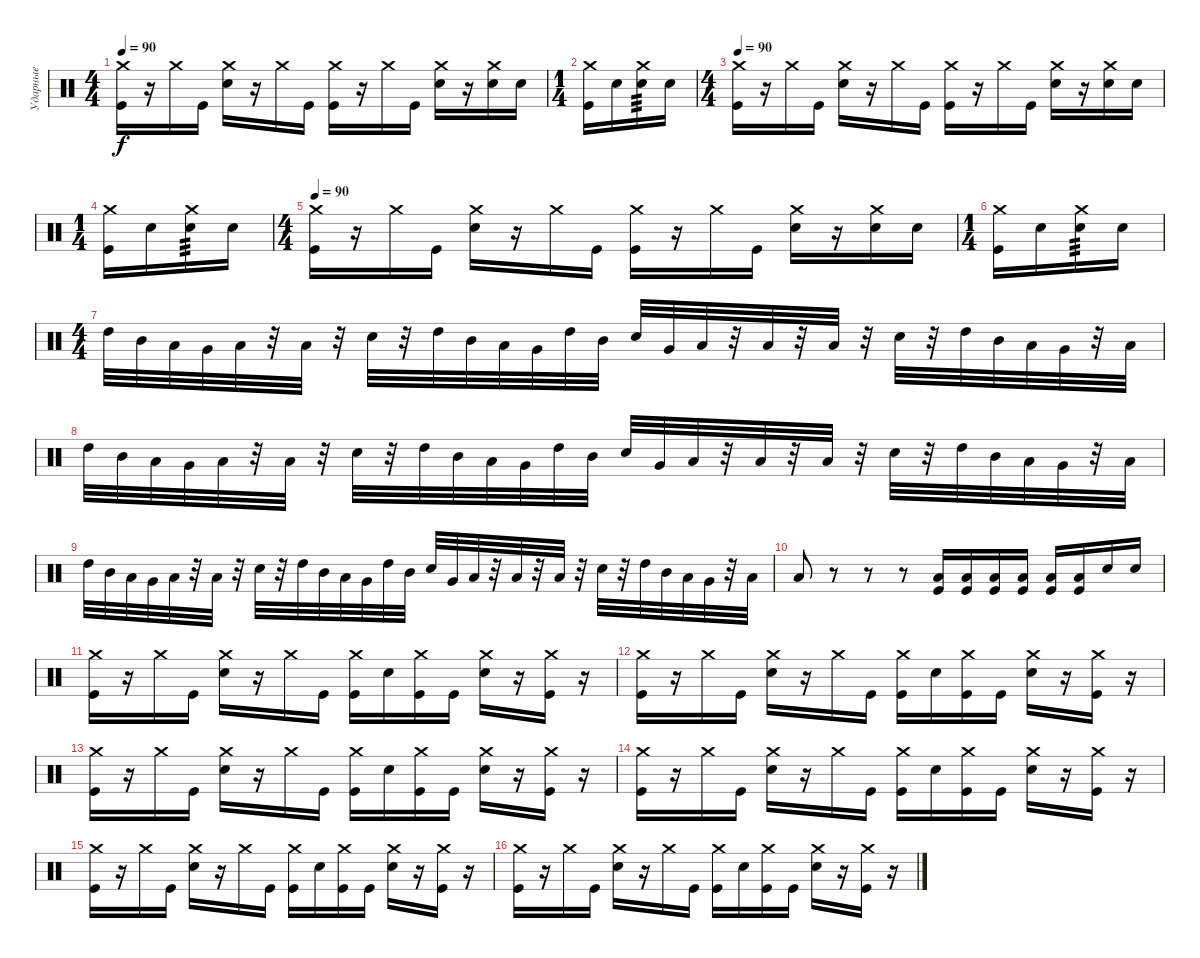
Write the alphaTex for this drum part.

\track ("Ударные" "Ударные") {instrument percussion}
\staff {score}
\articulation defaults
\ts (4 4)
\tempo 90
\clef neutral
\ks c
("Crash medium (hit)" "Kick (hit)").16{dy f} r.16 "Crash medium (hit)".16 "Kick (hit)".16 ("Crash medium (hit)" "Electric Snare (hit)").16 r.16 "Crash medium (hit)".16 "Kick (hit)".16 ("Crash medium (hit)" "Kick (hit)").16 r.16 "Crash medium (hit)".16 "Kick (hit)".16 ("Crash medium (hit)" "Electric Snare (hit)").16 r.16 ("Crash medium (hit)" "Electric Snare (hit)").16 "Electric Snare (hit)".16 |
\ts (1 4)
("Crash medium (hit)" "Kick (hit)").16 "Electric Snare (hit)".16 ("Crash medium (hit)" "Electric Snare (hit)").16{tp 3} "Electric Snare (hit)".16 |
\ts (4 4)
\tempo 90
("Crash medium (hit)" "Kick (hit)").16 r.16 "Crash medium (hit)".16 "Kick (hit)".16 ("Crash medium (hit)" "Electric Snare (hit)").16 r.16 "Crash medium (hit)".16 "Kick (hit)".16 ("Crash medium (hit)" "Kick (hit)").16 r.16 "Crash medium (hit)".16 "Kick (hit)".16 ("Crash medium (hit)" "Electric Snare (hit)").16 r.16 ("Crash medium (hit)" "Electric Snare (hit)").16 "Electric Snare (hit)".16 |
\ts (1 4)
("Crash medium (hit)" "Kick (hit)").16 "Electric Snare (hit)".16 ("Crash medium (hit)" "Electric Snare (hit)").16{tp 3} "Electric Snare (hit)".16 |
\ts (4 4)
\tempo 90
("Crash medium (hit)" "Kick (hit)").16 r.16 "Crash medium (hit)".16 "Kick (hit)".16 ("Crash medium (hit)" "Electric Snare (hit)").16 r.16 "Crash medium (hit)".16 "Kick (hit)".16 ("Crash medium (hit)" "Kick (hit)").16 r.16 "Crash medium (hit)".16 "Kick (hit)".16 ("Crash medium (hit)" "Electric Snare (hit)").16 r.16 ("Crash medium (hit)" "Electric Snare (hit)").16 "Electric Snare (hit)".16 |
\ts (1 4)
("Crash medium (hit)" "Kick (hit)").16 "Electric Snare (hit)".16 ("Crash medium (hit)" "Electric Snare (hit)").16{tp 3} "Electric Snare (hit)".16 |
\ts (4 4)
"High Tom (hit)".32 "Mid Tom (hit)".32 "Low Tom (hit)".32 "Very Low Tom (hit)".32 "Low Floor Tom (hit)".32 r.32 "Low Floor Tom (hit)".32 r.32 "Electric Snare (hit)".32 r.32 "High Tom (hit)".32 "Mid Tom (hit)".32 "Low Tom (hit)".32 "Very Low Tom (hit)".32 "High Tom (hit)".32 "Mid Tom (hit)".32 "Electric Snare (hit)".32 "Very Low Tom (hit)".32 "Low Floor Tom (hit)".32 r.32 "Low Floor Tom (hit)".32 r.32 "Low Floor Tom (hit)".32 r.32 "Electric Snare (hit)".32 r.32 "High Tom (hit)".32 "Mid Tom (hit)".32 "Low Tom (hit)".32 "Very Low Tom (hit)".32 r.32 "Low Floor Tom (hit)".32 |
"High Tom (hit)".32 "Mid Tom (hit)".32 "Low Tom (hit)".32 "Very Low Tom (hit)".32 "Low Floor Tom (hit)".32 r.32 "Low Floor Tom (hit)".32 r.32 "Electric Snare (hit)".32 r.32 "High Tom (hit)".32 "Mid Tom (hit)".32 "Low Tom (hit)".32 "Very Low Tom (hit)".32 "High Tom (hit)".32 "Mid Tom (hit)".32 "Electric Snare (hit)".32 "Very Low Tom (hit)".32 "Low Floor Tom (hit)".32 r.32 "Low Floor Tom (hit)".32 r.32 "Low Floor Tom (hit)".32 r.32 "Electric Snare (hit)".32 r.32 "High Tom (hit)".32 "Mid Tom (hit)".32 "Low Tom (hit)".32 "Very Low Tom (hit)".32 r.32 "Low Floor Tom (hit)".32 |
"High Tom (hit)".32 "Mid Tom (hit)".32 "Low Tom (hit)".32 "Very Low Tom (hit)".32 "Low Floor Tom (hit)".32 r.32 "Low Floor Tom (hit)".32 r.32 "Electric Snare (hit)".32 r.32 "High Tom (hit)".32 "Mid Tom (hit)".32 "Low Tom (hit)".32 "Very Low Tom (hit)".32 "High Tom (hit)".32 "Mid Tom (hit)".32 "Electric Snare (hit)".32 "Very Low Tom (hit)".32 "Low Floor Tom (hit)".32 r.32 "Low Floor Tom (hit)".32 r.32 "Low Floor Tom (hit)".32 r.32 "Electric Snare (hit)".32 r.32 "High Tom (hit)".32 "Mid Tom (hit)".32 "Low Tom (hit)".32 "Very Low Tom (hit)".32 r.32 "Low Floor Tom (hit)".32 |
"Low Floor Tom (hit)".8 r.8 r.8 r.8 ("Kick (hit)" "Low Floor Tom (hit)").16 ("Kick (hit)" "Low Floor Tom (hit)").16 ("Kick (hit)" "Low Floor Tom (hit)").16 ("Kick (hit)" "Low Floor Tom (hit)").16 ("Kick (hit)" "Low Floor Tom (hit)").16 ("Kick (hit)" "Low Floor Tom (hit)").16 "Electric Snare (hit)".16 "Electric Snare (hit)".16 |
("Crash medium (hit)" "Kick (hit)").16 r.16 "Crash medium (hit)".16 "Kick (hit)".16 ("Crash medium (hit)" "Electric Snare (hit)").16 r.16 "Crash medium (hit)".16 "Kick (hit)".16 ("Crash medium (hit)" "Kick (hit)").16 "Electric Snare (hit)".16 ("Crash medium (hit)" "Kick (hit)").16 "Kick (hit)".16 ("Crash medium (hit)" "Electric Snare (hit)").16 r.16 ("Crash medium (hit)" "Kick (hit)").16 r.16 |
("Crash medium (hit)" "Kick (hit)").16 r.16 "Crash medium (hit)".16 "Kick (hit)".16 ("Crash medium (hit)" "Electric Snare (hit)").16 r.16 "Crash medium (hit)".16 "Kick (hit)".16 ("Crash medium (hit)" "Kick (hit)").16 "Electric Snare (hit)".16 ("Crash medium (hit)" "Kick (hit)").16 "Kick (hit)".16 ("Crash medium (hit)" "Electric Snare (hit)").16 r.16 ("Crash medium (hit)" "Kick (hit)").16 r.16 |
("Crash medium (hit)" "Kick (hit)").16 r.16 "Crash medium (hit)".16 "Kick (hit)".16 ("Crash medium (hit)" "Electric Snare (hit)").16 r.16 "Crash medium (hit)".16 "Kick (hit)".16 ("Crash medium (hit)" "Kick (hit)").16 "Electric Snare (hit)".16 ("Crash medium (hit)" "Kick (hit)").16 "Kick (hit)".16 ("Crash medium (hit)" "Electric Snare (hit)").16 r.16 ("Crash medium (hit)" "Kick (hit)").16 r.16 |
("Crash medium (hit)" "Kick (hit)").16 r.16 "Crash medium (hit)".16 "Kick (hit)".16 ("Crash medium (hit)" "Electric Snare (hit)").16 r.16 "Crash medium (hit)".16 "Kick (hit)".16 ("Crash medium (hit)" "Kick (hit)").16 "Electric Snare (hit)".16 ("Crash medium (hit)" "Kick (hit)").16 "Kick (hit)".16 ("Crash medium (hit)" "Electric Snare (hit)").16 r.16 ("Crash medium (hit)" "Kick (hit)").16 r.16 |
("Crash medium (hit)" "Kick (hit)").16 r.16 "Crash medium (hit)".16 "Kick (hit)".16 ("Crash medium (hit)" "Electric Snare (hit)").16 r.16 "Crash medium (hit)".16 "Kick (hit)".16 ("Crash medium (hit)" "Kick (hit)").16 "Electric Snare (hit)".16 ("Crash medium (hit)" "Kick (hit)").16 "Kick (hit)".16 ("Crash medium (hit)" "Electric Snare (hit)").16 r.16 ("Crash medium (hit)" "Kick (hit)").16 r.16 |
("Crash medium (hit)" "Kick (hit)").16 r.16 "Crash medium (hit)".16 "Kick (hit)".16 ("Crash medium (hit)" "Electric Snare (hit)").16 r.16 "Crash medium (hit)".16 "Kick (hit)".16 ("Crash medium (hit)" "Kick (hit)").16 "Electric Snare (hit)".16 ("Crash medium (hit)" "Kick (hit)").16 "Kick (hit)".16 ("Crash medium (hit)" "Electric Snare (hit)").16 r.16 ("Crash medium (hit)" "Kick (hit)").16 r.16
